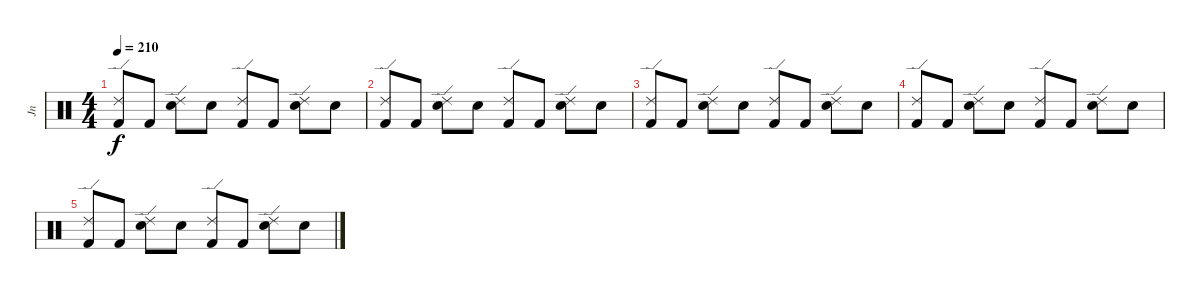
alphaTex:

\track ("Jn" "Jn") {instrument percussion}
\staff {score}
\articulation defaults
\ts (4 4)
\tempo 210
\clef neutral
\ks c
("Ride (edge) 2" "Kick (hit) 2").8{dy f} "Kick (hit) 2".8 ("Ride (edge) 2" "Electric Snare (hit)").8 "Snare (hit)".8 ("Ride (edge) 2" "Kick (hit) 2").8 "Kick (hit) 2".8 ("Ride (edge) 2" "Electric Snare (hit)").8 "Snare (hit)".8 |
("Ride (edge) 2" "Kick (hit) 2").8 "Kick (hit) 2".8 ("Ride (edge) 2" "Electric Snare (hit)").8 "Snare (hit)".8 ("Ride (edge) 2" "Kick (hit) 2").8 "Kick (hit) 2".8 ("Ride (edge) 2" "Electric Snare (hit)").8 "Snare (hit)".8 |
("Ride (edge) 2" "Kick (hit) 2").8 "Kick (hit) 2".8 ("Ride (edge) 2" "Electric Snare (hit)").8 "Snare (hit)".8 ("Ride (edge) 2" "Kick (hit) 2").8 "Kick (hit) 2".8 ("Ride (edge) 2" "Electric Snare (hit)").8 "Snare (hit)".8 |
("Ride (edge) 2" "Kick (hit) 2").8 "Kick (hit) 2".8 ("Ride (edge) 2" "Electric Snare (hit)").8 "Snare (hit)".8 ("Ride (edge) 2" "Kick (hit) 2").8 "Kick (hit) 2".8 ("Ride (edge) 2" "Electric Snare (hit)").8 "Snare (hit)".8 |
("Ride (edge) 2" "Kick (hit) 2").8 "Kick (hit) 2".8 ("Ride (edge) 2" "Electric Snare (hit)").8 "Snare (hit)".8 ("Ride (edge) 2" "Kick (hit) 2").8 "Kick (hit) 2".8 ("Ride (edge) 2" "Electric Snare (hit)").8 "Snare (hit)".8
